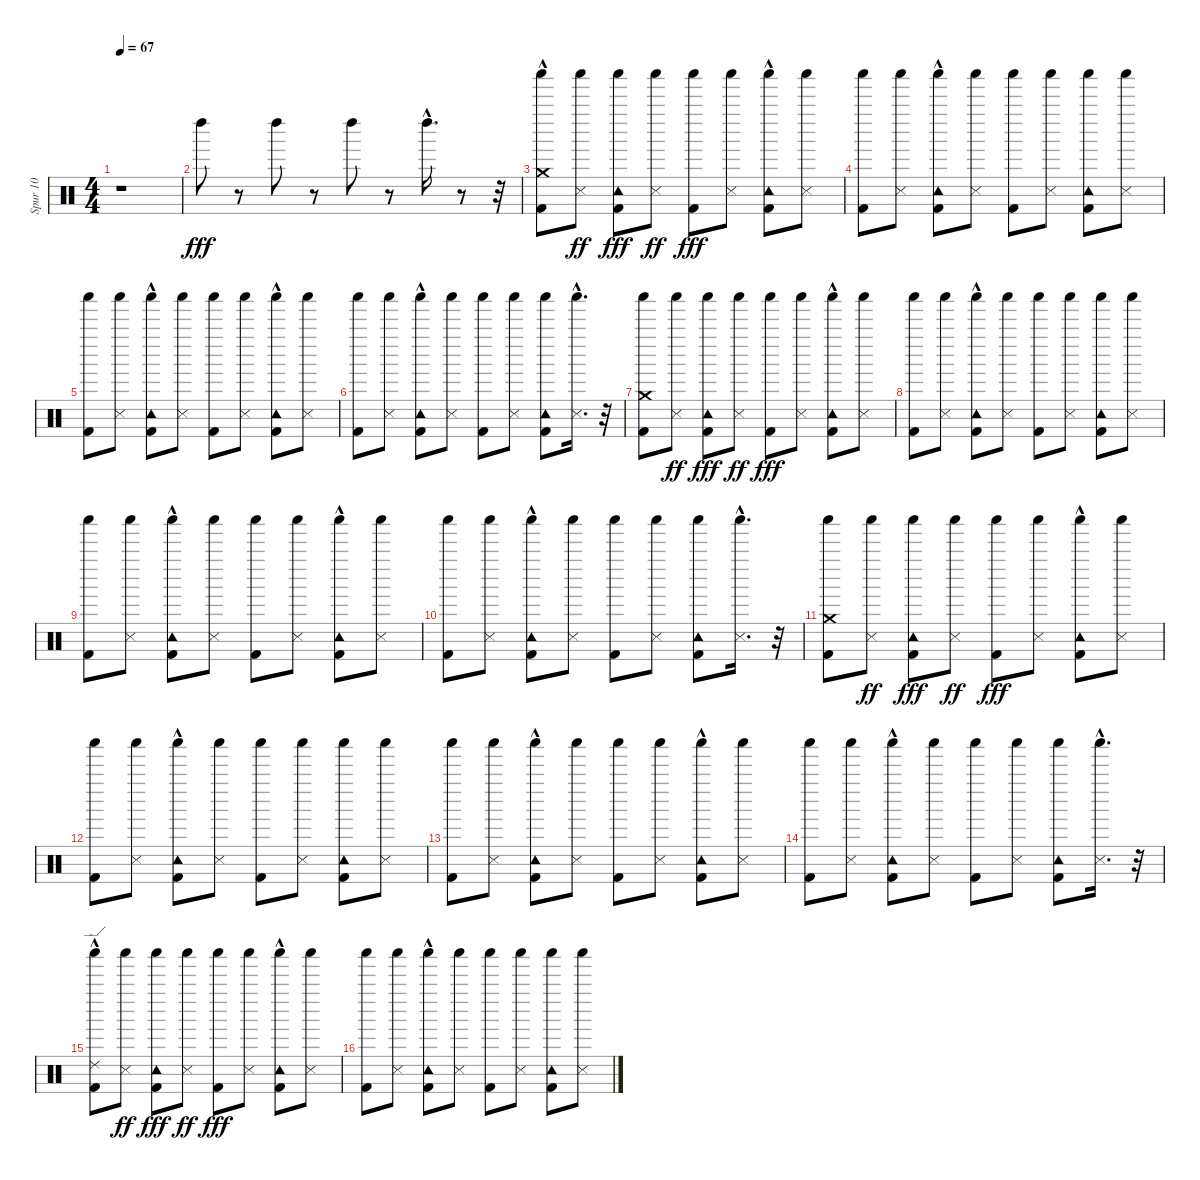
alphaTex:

\track ("Spur 10" "Spur 10") {instrument percussion}
\staff {score}
\articulation defaults
\ts (4 4)
\tempo 67
\clef neutral
\ks c
r.1{dy fff} |
"Left Maraca (hit)".8 r.8 "Left Maraca (hit)".8 r.8 "Left Maraca (hit)".8 r.8 "Left Maraca (hit)"{hac}.16{d} r.8 r.32 |
("Kick (hit) 2" "Crash medium (hit)"{hac} "Shaker (hit)").8 ("Snare (side stick) 3" "Shaker (hit)").8{dy ff} ("Kick (hit) 2" "Tambourine (hit)" "Shaker (hit)").8{dy fff} ("Snare (side stick) 3" "Shaker (hit)").8{dy ff} ("Kick (hit) 2" "Shaker (hit)").8{dy fff} ("Snare (side stick) 3" "Shaker (hit)").8 ("Kick (hit) 2" "Tambourine (hit)"{hac} "Shaker (hit)").8 ("Snare (side stick) 3" "Shaker (hit)").8 |
("Kick (hit) 2" "Shaker (hit)").8 ("Snare (side stick) 3" "Shaker (hit)").8 ("Kick (hit) 2" "Tambourine (hit)"{hac} "Shaker (hit)").8 ("Snare (side stick) 3" "Shaker (hit)").8 ("Kick (hit) 2" "Shaker (hit)").8 ("Snare (side stick) 3" "Shaker (hit)").8 ("Kick (hit) 2" "Tambourine (hit)" "Shaker (hit)").8 ("Snare (side stick) 3" "Shaker (hit)").8 |
("Kick (hit) 2" "Shaker (hit)").8 ("Snare (side stick) 3" "Shaker (hit)").8 ("Kick (hit) 2" "Tambourine (hit)"{hac} "Shaker (hit)").8 ("Snare (side stick) 3" "Shaker (hit)").8 ("Kick (hit) 2" "Shaker (hit)").8 ("Snare (side stick) 3" "Shaker (hit)").8 ("Kick (hit) 2" "Tambourine (hit)"{hac} "Shaker (hit)").8 ("Snare (side stick) 3" "Shaker (hit)").8 |
("Kick (hit) 2" "Shaker (hit)").8 ("Snare (side stick) 3" "Shaker (hit)").8 ("Kick (hit) 2" "Tambourine (hit)"{hac} "Shaker (hit)").8 ("Snare (side stick) 3" "Shaker (hit)").8 ("Kick (hit) 2" "Shaker (hit)").8 ("Snare (side stick) 3" "Shaker (hit)").8 ("Kick (hit) 2" "Tambourine (hit)" "Shaker (hit)").8 ("Snare (side stick) 3"{hac} "Shaker (hit)").16{d} r.32 |
("Kick (hit) 2" "Crash medium (hit)" "Shaker (hit)").8 ("Snare (side stick) 3" "Shaker (hit)").8{dy ff} ("Kick (hit) 2" "Tambourine (hit)" "Shaker (hit)").8{dy fff} ("Snare (side stick) 3" "Shaker (hit)").8{dy ff} ("Kick (hit) 2" "Shaker (hit)").8{dy fff} ("Snare (side stick) 3" "Shaker (hit)").8 ("Kick (hit) 2" "Tambourine (hit)"{hac} "Shaker (hit)").8 ("Snare (side stick) 3" "Shaker (hit)").8 |
("Kick (hit) 2" "Shaker (hit)").8 ("Snare (side stick) 3" "Shaker (hit)").8 ("Kick (hit) 2" "Tambourine (hit)"{hac} "Shaker (hit)").8 ("Snare (side stick) 3" "Shaker (hit)").8 ("Kick (hit) 2" "Shaker (hit)").8 ("Snare (side stick) 3" "Shaker (hit)").8 ("Kick (hit) 2" "Tambourine (hit)" "Shaker (hit)").8 ("Snare (side stick) 3" "Shaker (hit)").8 |
("Kick (hit) 2" "Shaker (hit)").8 ("Snare (side stick) 3" "Shaker (hit)").8 ("Kick (hit) 2" "Tambourine (hit)"{hac} "Shaker (hit)").8 ("Snare (side stick) 3" "Shaker (hit)").8 ("Kick (hit) 2" "Shaker (hit)").8 ("Snare (side stick) 3" "Shaker (hit)").8 ("Kick (hit) 2" "Tambourine (hit)"{hac} "Shaker (hit)").8 ("Snare (side stick) 3" "Shaker (hit)").8 |
("Kick (hit) 2" "Shaker (hit)").8 ("Snare (side stick) 3" "Shaker (hit)").8 ("Kick (hit) 2" "Tambourine (hit)"{hac} "Shaker (hit)").8 ("Snare (side stick) 3" "Shaker (hit)").8 ("Kick (hit) 2" "Shaker (hit)").8 ("Snare (side stick) 3" "Shaker (hit)").8 ("Kick (hit) 2" "Tambourine (hit)" "Shaker (hit)").8 ("Snare (side stick) 3"{hac} "Shaker (hit)").16{d} r.32 |
("Kick (hit) 2" "Crash medium (hit)" "Shaker (hit)").8 ("Snare (side stick) 3" "Shaker (hit)").8{dy ff} ("Kick (hit) 2" "Tambourine (hit)" "Shaker (hit)").8{dy fff} ("Snare (side stick) 3" "Shaker (hit)").8{dy ff} ("Kick (hit) 2" "Shaker (hit)").8{dy fff} ("Snare (side stick) 3" "Shaker (hit)").8 ("Kick (hit) 2" "Tambourine (hit)"{hac} "Shaker (hit)").8 ("Snare (side stick) 3" "Shaker (hit)").8 |
("Kick (hit) 2" "Shaker (hit)").8 ("Snare (side stick) 3" "Shaker (hit)").8 ("Kick (hit) 2" "Tambourine (hit)"{hac} "Shaker (hit)").8 ("Snare (side stick) 3" "Shaker (hit)").8 ("Kick (hit) 2" "Shaker (hit)").8 ("Snare (side stick) 3" "Shaker (hit)").8 ("Kick (hit) 2" "Tambourine (hit)" "Shaker (hit)").8 ("Snare (side stick) 3" "Shaker (hit)").8 |
("Kick (hit) 2" "Shaker (hit)").8 ("Snare (side stick) 3" "Shaker (hit)").8 ("Kick (hit) 2" "Tambourine (hit)"{hac} "Shaker (hit)").8 ("Snare (side stick) 3" "Shaker (hit)").8 ("Kick (hit) 2" "Shaker (hit)").8 ("Snare (side stick) 3" "Shaker (hit)").8 ("Kick (hit) 2" "Tambourine (hit)"{hac} "Shaker (hit)").8 ("Snare (side stick) 3" "Shaker (hit)").8 |
("Kick (hit) 2" "Shaker (hit)").8 ("Snare (side stick) 3" "Shaker (hit)").8 ("Kick (hit) 2" "Tambourine (hit)"{hac} "Shaker (hit)").8 ("Snare (side stick) 3" "Shaker (hit)").8 ("Kick (hit) 2" "Shaker (hit)").8 ("Snare (side stick) 3" "Shaker (hit)").8 ("Kick (hit) 2" "Tambourine (hit)" "Shaker (hit)").8 ("Snare (side stick) 3"{hac} "Shaker (hit)").16{d} r.32 |
("Kick (hit) 2" "Ride (edge) 2"{hac} "Shaker (hit)").8 ("Snare (side stick) 3" "Shaker (hit)").8{dy ff} ("Kick (hit) 2" "Tambourine (hit)" "Shaker (hit)").8{dy fff} ("Snare (side stick) 3" "Shaker (hit)").8{dy ff} ("Kick (hit) 2" "Shaker (hit)").8{dy fff} ("Snare (side stick) 3" "Shaker (hit)").8 ("Kick (hit) 2" "Tambourine (hit)"{hac} "Shaker (hit)").8 ("Snare (side stick) 3" "Shaker (hit)").8 |
("Kick (hit) 2" "Shaker (hit)").8 ("Snare (side stick) 3" "Shaker (hit)").8 ("Kick (hit) 2" "Tambourine (hit)"{hac} "Shaker (hit)").8 ("Snare (side stick) 3" "Shaker (hit)").8 ("Kick (hit) 2" "Shaker (hit)").8 ("Snare (side stick) 3" "Shaker (hit)").8 ("Kick (hit) 2" "Tambourine (hit)" "Shaker (hit)").8 ("Snare (side stick) 3" "Shaker (hit)").8
